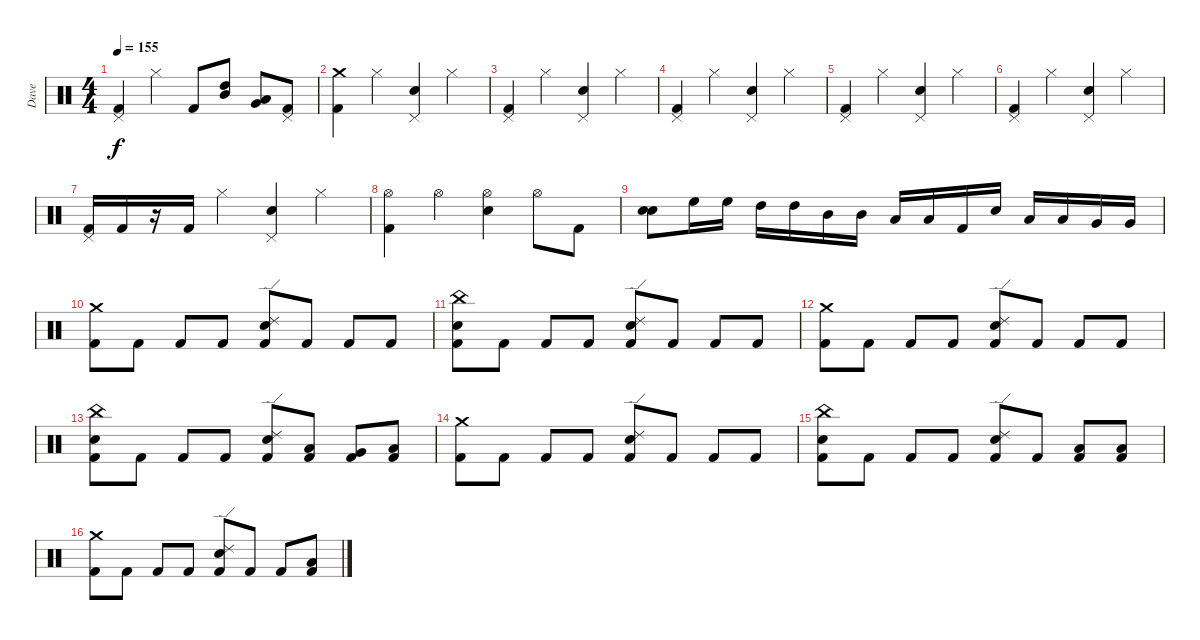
\track ("Dave" "Dave") {instrument percussion}
\staff {score}
\articulation defaults
\ts (4 4)
\tempo 155
\clef neutral
\ks c
("Pedal Hi-Hat (hit)" "Kick (hit) 2").4{dy f} "Hi-Hat (closed)".4 "Kick (hit) 2".8 ("High Tom (hit)" "Mid Tom (hit)").8{bd 480} ("Very Low Tom (hit)" "Low Tom (hit)").8{bd 480} ("Pedal Hi-Hat (hit)" "Kick (hit) 2").8 |
("Crash medium (hit)" "Kick (hit) 2").4 "Hi-Hat (closed)".4 ("Pedal Hi-Hat (hit)" "Snare (hit) 2").4 "Hi-Hat (closed)".4 |
("Pedal Hi-Hat (hit)" "Kick (hit) 2").4 "Hi-Hat (closed)".4 ("Pedal Hi-Hat (hit)" "Snare (hit) 2").4 "Hi-Hat (closed)".4 |
("Pedal Hi-Hat (hit)" "Kick (hit) 2").4 "Hi-Hat (closed)".4 ("Pedal Hi-Hat (hit)" "Snare (hit) 2").4 "Hi-Hat (closed)".4 |
("Pedal Hi-Hat (hit)" "Kick (hit) 2").4 "Hi-Hat (closed)".4 ("Pedal Hi-Hat (hit)" "Snare (hit) 2").4 "Hi-Hat (closed)".4 |
("Pedal Hi-Hat (hit)" "Kick (hit) 2").4 "Hi-Hat (closed)".4 ("Pedal Hi-Hat (hit)" "Snare (hit) 2").4 "Hi-Hat (closed)".4 |
("Pedal Hi-Hat (hit)" "Kick (hit) 2").16 "Kick (hit) 2".16 r.16 "Kick (hit) 2".16 "Hi-Hat (closed)".4 ("Pedal Hi-Hat (hit)" "Snare (hit) 2").4 "Hi-Hat (closed)".4 |
("Hi-Hat (open)" "Kick (hit) 2").4 "Hi-Hat (open)".4 ("Hi-Hat (open)" "Snare (hit) 2").4 "Hi-Hat (open)".8 "Kick (hit) 2".8 |
("Snare (hit) 2" "Snare (hit) 2").8{bd 480} "High Floor Tom (hit)".16 "High Floor Tom (hit)".16 "High Tom (hit)".16 "High Tom (hit)".16 "Mid Tom (hit)".16 "Mid Tom (hit)".16 "Low Tom (hit)".16 "Low Tom (hit)".16 "Kick (hit) 2".16 "Snare (hit) 2".16 "Low Floor Tom (hit)".16 "Low Floor Tom (hit)".16 "Very Low Tom (hit)".16 "Very Low Tom (hit)".16 |
("Crash medium (hit)" "Kick (hit) 2").8 "Kick (hit) 2".8 "Kick (hit) 2".8 "Kick (hit) 2".8 ("Ride (edge) 2" "Snare (hit) 2" "Kick (hit) 2").8 "Kick (hit) 2".8 "Kick (hit) 2".8 "Kick (hit) 2".8 |
("China (hit)" "Snare (hit) 2" "Kick (hit) 2").8 "Kick (hit) 2".8 "Kick (hit) 2".8 "Kick (hit) 2".8 ("Ride (edge) 2" "Snare (hit) 2" "Kick (hit) 2").8 "Kick (hit) 2".8 "Kick (hit) 2".8 "Kick (hit) 2".8 |
("Crash medium (hit)" "Kick (hit) 2").8 "Kick (hit) 2".8 "Kick (hit) 2".8 "Kick (hit) 2".8 ("Ride (edge) 2" "Snare (hit) 2" "Kick (hit) 2").8 "Kick (hit) 2".8 "Kick (hit) 2".8 "Kick (hit) 2".8 |
("China (hit)" "Snare (hit) 2" "Kick (hit) 2").8 "Kick (hit) 2".8 "Kick (hit) 2".8 "Kick (hit) 2".8 ("Ride (edge) 2" "Snare (hit) 2" "Kick (hit) 2").8 ("Low Tom (hit)" "Kick (hit) 2").8 ("Very Low Tom (hit)" "Kick (hit) 2").8 ("Low Floor Tom (hit)" "Kick (hit) 2").8 |
("Crash medium (hit)" "Kick (hit) 2").8 "Kick (hit) 2".8 "Kick (hit) 2".8 "Kick (hit) 2".8 ("Ride (edge) 2" "Snare (hit) 2" "Kick (hit) 2").8 "Kick (hit) 2".8 "Kick (hit) 2".8 "Kick (hit) 2".8 |
("China (hit)" "Snare (hit) 2" "Kick (hit) 2").8 "Kick (hit) 2".8 "Kick (hit) 2".8 "Kick (hit) 2".8 ("Ride (edge) 2" "Snare (hit) 2" "Kick (hit) 2").8 "Kick (hit) 2".8 ("Low Floor Tom (hit)" "Kick (hit) 2").8 ("Low Floor Tom (hit)" "Kick (hit) 2").8 |
("Crash medium (hit)" "Kick (hit) 2").8 "Kick (hit) 2".8 "Kick (hit) 2".8 "Kick (hit) 2".8 ("Ride (edge) 2" "Snare (hit) 2" "Kick (hit) 2").8 "Kick (hit) 2".8 "Kick (hit) 2".8 ("Low Floor Tom (hit)" "Kick (hit) 2").8
